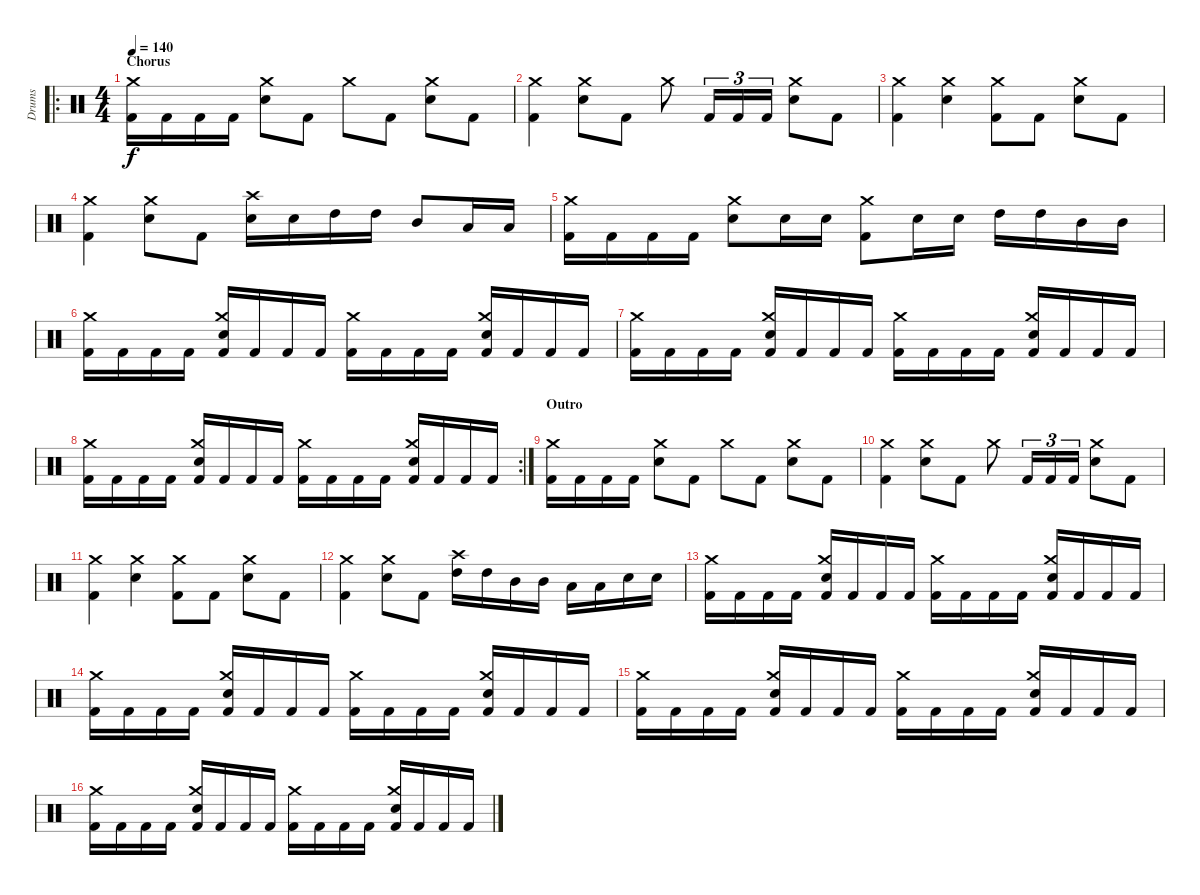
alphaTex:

\track ("Drums" "Drums") {instrument percussion}
\staff {score}
\articulation defaults
\ro
\ts (4 4)
\section ("" "Chorus")
\tempo 140
\clef neutral
\ks c
("Kick (hit) 2" "Crash medium (hit)").16{dy f} "Kick (hit) 2".16 "Kick (hit) 2".16 "Kick (hit) 2".16 ("Electric Snare (hit)" "Crash medium (hit)").8 "Kick (hit) 2".8 "Crash medium (hit)".8 "Kick (hit) 2".8 ("Electric Snare (hit)" "Crash medium (hit)").8 "Kick (hit) 2".8 |
("Kick (hit) 2" "Crash medium (hit)").4 ("Electric Snare (hit)" "Crash medium (hit)").8 "Kick (hit) 2".8 "Crash medium (hit)".8 "Kick (hit) 2".16{tu (3 2)} "Kick (hit) 2".16{tu (3 2)} "Kick (hit) 2".16{tu (3 2)} ("Electric Snare (hit)" "Crash medium (hit)").8 "Kick (hit) 2".8 |
("Kick (hit) 2" "Crash medium (hit)").4 ("Electric Snare (hit)" "Crash medium (hit)").4 ("Kick (hit) 2" "Crash medium (hit)").8 "Kick (hit) 2".8 ("Electric Snare (hit)" "Crash medium (hit)").8 "Kick (hit) 2".8 |
("Kick (hit) 2" "Crash medium (hit)").4 ("Electric Snare (hit)" "Crash medium (hit)").8 "Kick (hit) 2".8 ("Electric Snare (hit)" "Crash high (hit)").16 "Electric Snare (hit)".16 "High Tom (hit)".16 "High Tom (hit)".16 "Mid Tom (hit)".8 "Low Tom (hit)".16 "Low Tom (hit)".16 |
("Kick (hit) 2" "Crash medium (hit)").16 "Kick (hit) 2".16 "Kick (hit) 2".16 "Kick (hit) 2".16 ("Electric Snare (hit)" "Crash medium (hit)").8 "Electric Snare (hit)".16 "Electric Snare (hit)".16 ("Kick (hit) 2" "Crash medium (hit)").8 "Electric Snare (hit)".16 "Electric Snare (hit)".16 "High Tom (hit)".16 "High Tom (hit)".16 "Mid Tom (hit)".16 "Mid Tom (hit)".16 |
("Kick (hit) 2" "Crash medium (hit)").16 "Kick (hit) 2".16 "Kick (hit) 2".16 "Kick (hit) 2".16 ("Kick (hit) 2" "Electric Snare (hit)" "Crash medium (hit)").16 "Kick (hit) 2".16 "Kick (hit) 2".16 "Kick (hit) 2".16 ("Kick (hit) 2" "Crash medium (hit)").16 "Kick (hit) 2".16 "Kick (hit) 2".16 "Kick (hit) 2".16 ("Kick (hit) 2" "Electric Snare (hit)" "Crash medium (hit)").16 "Kick (hit) 2".16 "Kick (hit) 2".16 "Kick (hit) 2".16 |
("Kick (hit) 2" "Crash medium (hit)").16 "Kick (hit) 2".16 "Kick (hit) 2".16 "Kick (hit) 2".16 ("Kick (hit) 2" "Electric Snare (hit)" "Crash medium (hit)").16 "Kick (hit) 2".16 "Kick (hit) 2".16 "Kick (hit) 2".16 ("Kick (hit) 2" "Crash medium (hit)").16 "Kick (hit) 2".16 "Kick (hit) 2".16 "Kick (hit) 2".16 ("Kick (hit) 2" "Electric Snare (hit)" "Crash medium (hit)").16 "Kick (hit) 2".16 "Kick (hit) 2".16 "Kick (hit) 2".16 |
\rc 2
("Kick (hit) 2" "Crash medium (hit)").16 "Kick (hit) 2".16 "Kick (hit) 2".16 "Kick (hit) 2".16 ("Kick (hit) 2" "Electric Snare (hit)" "Crash medium (hit)").16 "Kick (hit) 2".16 "Kick (hit) 2".16 "Kick (hit) 2".16 ("Kick (hit) 2" "Crash medium (hit)").16 "Kick (hit) 2".16 "Kick (hit) 2".16 "Kick (hit) 2".16 ("Kick (hit) 2" "Electric Snare (hit)" "Crash medium (hit)").16 "Kick (hit) 2".16 "Kick (hit) 2".16 "Kick (hit) 2".16 |
\section ("" "Outro")
("Kick (hit) 2" "Crash medium (hit)").16 "Kick (hit) 2".16 "Kick (hit) 2".16 "Kick (hit) 2".16 ("Electric Snare (hit)" "Crash medium (hit)").8 "Kick (hit) 2".8 "Crash medium (hit)".8 "Kick (hit) 2".8 ("Electric Snare (hit)" "Crash medium (hit)").8 "Kick (hit) 2".8 |
("Kick (hit) 2" "Crash medium (hit)").4 ("Electric Snare (hit)" "Crash medium (hit)").8 "Kick (hit) 2".8 "Crash medium (hit)".8 "Kick (hit) 2".16{tu (3 2)} "Kick (hit) 2".16{tu (3 2)} "Kick (hit) 2".16{tu (3 2)} ("Electric Snare (hit)" "Crash medium (hit)").8 "Kick (hit) 2".8 |
("Kick (hit) 2" "Crash medium (hit)").4{volume 14} ("Electric Snare (hit)" "Crash medium (hit)").4 ("Kick (hit) 2" "Crash medium (hit)").8 "Kick (hit) 2".8 ("Electric Snare (hit)" "Crash medium (hit)").8 "Kick (hit) 2".8 |
("Kick (hit) 2" "Crash medium (hit)").4 ("Electric Snare (hit)" "Crash medium (hit)").8 "Kick (hit) 2".8 ("High Tom (hit)" "Crash high (hit)").16 "High Tom (hit)".16 "Mid Tom (hit)".16 "Mid Tom (hit)".16 "Low Tom (hit)".16 "Low Tom (hit)".16 "Electric Snare (hit)".16 "Electric Snare (hit)".16 |
("Kick (hit) 2" "Crash medium (hit)").16{volume 12} "Kick (hit) 2".16 "Kick (hit) 2".16 "Kick (hit) 2".16 ("Kick (hit) 2" "Electric Snare (hit)" "Crash medium (hit)").16 "Kick (hit) 2".16 "Kick (hit) 2".16 "Kick (hit) 2".16 ("Kick (hit) 2" "Crash medium (hit)").16 "Kick (hit) 2".16 "Kick (hit) 2".16 "Kick (hit) 2".16 ("Kick (hit) 2" "Electric Snare (hit)" "Crash medium (hit)").16 "Kick (hit) 2".16 "Kick (hit) 2".16 "Kick (hit) 2".16 |
("Kick (hit) 2" "Crash medium (hit)").16 "Kick (hit) 2".16 "Kick (hit) 2".16 "Kick (hit) 2".16 ("Kick (hit) 2" "Electric Snare (hit)" "Crash medium (hit)").16 "Kick (hit) 2".16 "Kick (hit) 2".16 "Kick (hit) 2".16 ("Kick (hit) 2" "Crash medium (hit)").16 "Kick (hit) 2".16 "Kick (hit) 2".16 "Kick (hit) 2".16 ("Kick (hit) 2" "Electric Snare (hit)" "Crash medium (hit)").16 "Kick (hit) 2".16 "Kick (hit) 2".16 "Kick (hit) 2".16 |
("Kick (hit) 2" "Crash medium (hit)").16{volume 10} "Kick (hit) 2".16 "Kick (hit) 2".16 "Kick (hit) 2".16 ("Kick (hit) 2" "Electric Snare (hit)" "Crash medium (hit)").16 "Kick (hit) 2".16 "Kick (hit) 2".16 "Kick (hit) 2".16 ("Kick (hit) 2" "Crash medium (hit)").16 "Kick (hit) 2".16 "Kick (hit) 2".16 "Kick (hit) 2".16 ("Kick (hit) 2" "Electric Snare (hit)" "Crash medium (hit)").16 "Kick (hit) 2".16 "Kick (hit) 2".16 "Kick (hit) 2".16 |
("Kick (hit) 2" "Crash medium (hit)").16 "Kick (hit) 2".16 "Kick (hit) 2".16 "Kick (hit) 2".16 ("Kick (hit) 2" "Electric Snare (hit)" "Crash medium (hit)").16 "Kick (hit) 2".16 "Kick (hit) 2".16 "Kick (hit) 2".16 ("Kick (hit) 2" "Crash medium (hit)").16 "Kick (hit) 2".16 "Kick (hit) 2".16 "Kick (hit) 2".16 ("Kick (hit) 2" "Electric Snare (hit)" "Crash medium (hit)").16 "Kick (hit) 2".16 "Kick (hit) 2".16 "Kick (hit) 2".16
